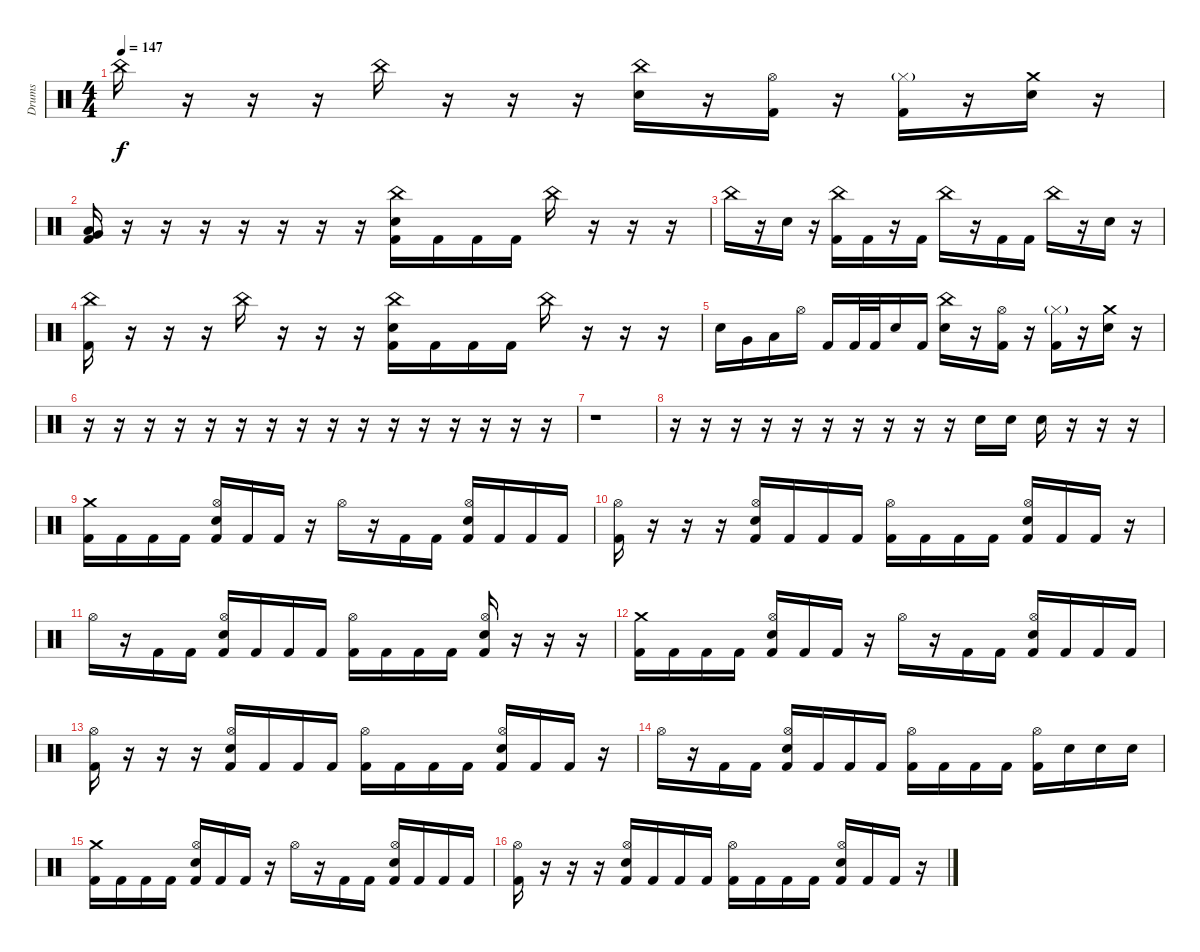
\track ("Drums" "Drums") {instrument percussion}
\staff {score}
\articulation defaults
\ts (4 4)
\tempo 147
\clef neutral
\ks c "China (hit)".16{dy f}
r.16 r.16 r.16 "China (hit)".16 r.16 r.16 r.16 ("China (hit)" "Electric Snare (hit)").16 r.16 ("Hi-Hat (open)" "Kick (hit) 2").16 r.16 ("Hi-Hat (closed)"{g} "Kick (hit) 2").16 r.16 ("Crash medium (hit)" "Electric Snare (hit)").16 r.16 |
("Very Low Tom (hit)" "Low Floor Tom (hit)" "Kick (hit) 2").16 r.16 r.16 r.16 r.16 r.16 r.16 r.16 ("China (hit)" "Electric Snare (hit)" "Kick (hit) 2").16 "Kick (hit) 2".16 "Kick (hit) 2".16 "Kick (hit) 2".16 "China (hit)".16 r.16 r.16 r.16 |
"China (hit)".16 r.16 "Electric Snare (hit)".16 r.16 ("China (hit)" "Kick (hit) 2").16 "Kick (hit) 2".16 r.16 "Kick (hit) 2".16 "China (hit)".16 r.16 "Kick (hit) 2".16 "Kick (hit) 2".16 "China (hit)".16 r.16 "Electric Snare (hit)".16 r.16 |
("China (hit)" "Kick (hit) 2").16 r.16 r.16 r.16 "China (hit)".16 r.16 r.16 r.16 ("China (hit)" "Electric Snare (hit)" "Kick (hit) 2").16 "Kick (hit) 2".16 "Kick (hit) 2".16 "Kick (hit) 2".16 "China (hit)".16 r.16 r.16 r.16 |
"Electric Snare (hit)".16 "Very Low Tom (hit)".16 "Low Floor Tom (hit)".16 "Hi-Hat (open)".16 "Kick (hit) 2".16 "Kick (hit) 2".32 "Kick (hit) 2".32 "Electric Snare (hit)".16 "Kick (hit) 2".16 ("China (hit)" "Electric Snare (hit)").16 r.16 ("Hi-Hat (open)" "Kick (hit) 2").16 r.16 ("Hi-Hat (closed)"{g} "Kick (hit) 2").16 r.16 ("Crash medium (hit)" "Electric Snare (hit)").16 r.16 |
r.16 r.16 r.16 r.16 r.16 r.16 r.16 r.16 r.16 r.16 r.16 r.16 r.16 r.16 r.16 r.16 |
r.1 |
r.16 r.16 r.16 r.16 r.16 r.16 r.16 r.16 r.16 r.16 "Electric Snare (hit)".16 "Electric Snare (hit)".16 "Electric Snare (hit)".16 r.16 r.16 r.16 |
("Crash medium (hit)" "Kick (hit) 2").16 "Kick (hit) 2".16 "Kick (hit) 2".16 "Kick (hit) 2".16 ("Hi-Hat (open)" "Electric Snare (hit)" "Kick (hit) 2").16 "Kick (hit) 2".16 "Kick (hit) 2".16 r.16 "Hi-Hat (open)".16 r.16 "Kick (hit) 2".16 "Kick (hit) 2".16 ("Hi-Hat (open)" "Electric Snare (hit)" "Kick (hit) 2").16 "Kick (hit) 2".16 "Kick (hit) 2".16 "Kick (hit) 2".16 |
("Hi-Hat (open)" "Kick (hit) 2").16 r.16 r.16 r.16 ("Hi-Hat (open)" "Electric Snare (hit)" "Kick (hit) 2").16 "Kick (hit) 2".16 "Kick (hit) 2".16 "Kick (hit) 2".16 ("Hi-Hat (open)" "Kick (hit) 2").16 "Kick (hit) 2".16 "Kick (hit) 2".16 "Kick (hit) 2".16 ("Hi-Hat (open)" "Electric Snare (hit)" "Kick (hit) 2").16 "Kick (hit) 2".16 "Kick (hit) 2".16 r.16 |
"Hi-Hat (open)".16 r.16 "Kick (hit) 2".16 "Kick (hit) 2".16 ("Hi-Hat (open)" "Electric Snare (hit)" "Kick (hit) 2").16 "Kick (hit) 2".16 "Kick (hit) 2".16 "Kick (hit) 2".16 ("Hi-Hat (open)" "Kick (hit) 2").16 "Kick (hit) 2".16 "Kick (hit) 2".16 "Kick (hit) 2".16 ("Hi-Hat (open)" "Electric Snare (hit)" "Kick (hit) 2").16 r.16 r.16 r.16 |
("Crash medium (hit)" "Kick (hit) 2").16 "Kick (hit) 2".16 "Kick (hit) 2".16 "Kick (hit) 2".16 ("Hi-Hat (open)" "Electric Snare (hit)" "Kick (hit) 2").16 "Kick (hit) 2".16 "Kick (hit) 2".16 r.16 "Hi-Hat (open)".16 r.16 "Kick (hit) 2".16 "Kick (hit) 2".16 ("Hi-Hat (open)" "Electric Snare (hit)" "Kick (hit) 2").16 "Kick (hit) 2".16 "Kick (hit) 2".16 "Kick (hit) 2".16 |
("Hi-Hat (open)" "Kick (hit) 2").16 r.16 r.16 r.16 ("Hi-Hat (open)" "Electric Snare (hit)" "Kick (hit) 2").16 "Kick (hit) 2".16 "Kick (hit) 2".16 "Kick (hit) 2".16 ("Hi-Hat (open)" "Kick (hit) 2").16 "Kick (hit) 2".16 "Kick (hit) 2".16 "Kick (hit) 2".16 ("Hi-Hat (open)" "Electric Snare (hit)" "Kick (hit) 2").16 "Kick (hit) 2".16 "Kick (hit) 2".16 r.16 |
"Hi-Hat (open)".16 r.16 "Kick (hit) 2".16 "Kick (hit) 2".16 ("Hi-Hat (open)" "Electric Snare (hit)" "Kick (hit) 2").16 "Kick (hit) 2".16 "Kick (hit) 2".16 "Kick (hit) 2".16 ("Hi-Hat (open)" "Kick (hit) 2").16 "Kick (hit) 2".16 "Kick (hit) 2".16 "Kick (hit) 2".16 ("Hi-Hat (open)" "Kick (hit) 2").16 "Electric Snare (hit)".16 "Electric Snare (hit)".16 "Electric Snare (hit)".16 |
("Crash medium (hit)" "Kick (hit) 2").16 "Kick (hit) 2".16 "Kick (hit) 2".16 "Kick (hit) 2".16 ("Hi-Hat (open)" "Electric Snare (hit)" "Kick (hit) 2").16 "Kick (hit) 2".16 "Kick (hit) 2".16 r.16 "Hi-Hat (open)".16 r.16 "Kick (hit) 2".16 "Kick (hit) 2".16 ("Hi-Hat (open)" "Electric Snare (hit)" "Kick (hit) 2").16 "Kick (hit) 2".16 "Kick (hit) 2".16 "Kick (hit) 2".16 |
("Hi-Hat (open)" "Kick (hit) 2").16 r.16 r.16 r.16 ("Hi-Hat (open)" "Electric Snare (hit)" "Kick (hit) 2").16 "Kick (hit) 2".16 "Kick (hit) 2".16 "Kick (hit) 2".16 ("Hi-Hat (open)" "Kick (hit) 2").16 "Kick (hit) 2".16 "Kick (hit) 2".16 "Kick (hit) 2".16 ("Hi-Hat (open)" "Electric Snare (hit)" "Kick (hit) 2").16 "Kick (hit) 2".16 "Kick (hit) 2".16 r.16
